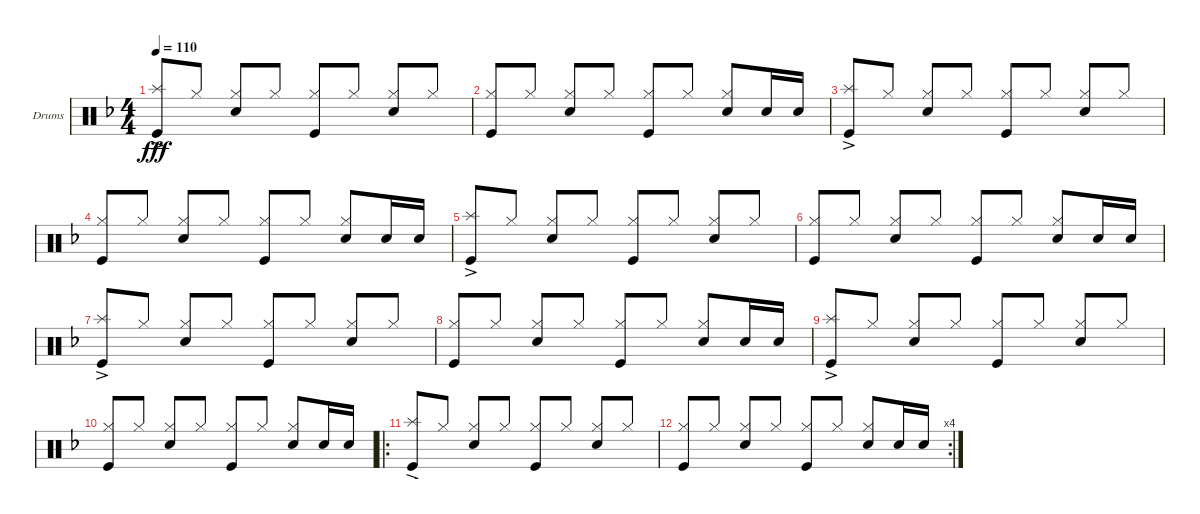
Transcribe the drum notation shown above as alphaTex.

\defaultSystemsLayout 4
\bracketExtendMode groupsimilarinstruments
\firstSystemTrackNameOrientation horizontal
\otherSystemsTrackNameOrientation horizontal
\track ("Drumkit" "Drums") {instrument percussion}
\staff {score}
\articulation defaults
\ts (4 4)
\tempo 110
\clef neutral
\ks f
("Kick (hit)" "Splash (hit)"{ac}).8{dy fff} "Hi-Hat (closed)".8 ("Hi-Hat (closed)" "Snare (hit) 2").8{beam invert} "Hi-Hat (closed)".8 ("Hi-Hat (closed)" "Kick (hit)").8{beam invert} "Hi-Hat (closed)".8 ("Hi-Hat (closed)" "Snare (hit) 2").8{beam invert} "Hi-Hat (closed)".8 |
("Hi-Hat (closed)" "Kick (hit)").8{beam invert} "Hi-Hat (closed)".8 ("Hi-Hat (closed)" "Snare (hit) 2").8{beam invert} "Hi-Hat (closed)".8 ("Hi-Hat (closed)" "Kick (hit)").8{beam invert} "Hi-Hat (closed)".8 ("Hi-Hat (closed)" "Snare (hit) 2").8{beam invert} "Snare (hit) 2".16 "Snare (hit) 2".16 |
("Kick (hit)" "Splash (hit)"{ac}).8 "Hi-Hat (closed)".8 ("Hi-Hat (closed)" "Snare (hit) 2").8{beam invert} "Hi-Hat (closed)".8 ("Hi-Hat (closed)" "Kick (hit)").8{beam invert} "Hi-Hat (closed)".8 ("Hi-Hat (closed)" "Snare (hit) 2").8{beam invert} "Hi-Hat (closed)".8 |
("Hi-Hat (closed)" "Kick (hit)").8{beam invert} "Hi-Hat (closed)".8 ("Hi-Hat (closed)" "Snare (hit) 2").8{beam invert} "Hi-Hat (closed)".8 ("Hi-Hat (closed)" "Kick (hit)").8{beam invert} "Hi-Hat (closed)".8 ("Hi-Hat (closed)" "Snare (hit) 2").8{beam invert} "Snare (hit) 2".16 "Snare (hit) 2".16 |
("Kick (hit)" "Splash (hit)"{ac}).8 "Hi-Hat (closed)".8 ("Hi-Hat (closed)" "Snare (hit) 2").8{beam invert} "Hi-Hat (closed)".8 ("Hi-Hat (closed)" "Kick (hit)").8{beam invert} "Hi-Hat (closed)".8 ("Hi-Hat (closed)" "Snare (hit) 2").8{beam invert} "Hi-Hat (closed)".8 |
("Hi-Hat (closed)" "Kick (hit)").8{beam invert} "Hi-Hat (closed)".8 ("Hi-Hat (closed)" "Snare (hit) 2").8{beam invert} "Hi-Hat (closed)".8 ("Hi-Hat (closed)" "Kick (hit)").8{beam invert} "Hi-Hat (closed)".8 ("Hi-Hat (closed)" "Snare (hit) 2").8{beam invert} "Snare (hit) 2".16 "Snare (hit) 2".16 |
("Kick (hit)" "Splash (hit)"{ac}).8 "Hi-Hat (closed)".8 ("Hi-Hat (closed)" "Snare (hit) 2").8{beam invert} "Hi-Hat (closed)".8 ("Hi-Hat (closed)" "Kick (hit)").8{beam invert} "Hi-Hat (closed)".8 ("Hi-Hat (closed)" "Snare (hit) 2").8{beam invert} "Hi-Hat (closed)".8 |
("Hi-Hat (closed)" "Kick (hit)").8{beam invert} "Hi-Hat (closed)".8 ("Hi-Hat (closed)" "Snare (hit) 2").8{beam invert} "Hi-Hat (closed)".8 ("Hi-Hat (closed)" "Kick (hit)").8{beam invert} "Hi-Hat (closed)".8 ("Hi-Hat (closed)" "Snare (hit) 2").8{beam invert} "Snare (hit) 2".16 "Snare (hit) 2".16 |
("Kick (hit)" "Splash (hit)"{ac}).8 "Hi-Hat (closed)".8 ("Hi-Hat (closed)" "Snare (hit) 2").8{beam invert} "Hi-Hat (closed)".8 ("Hi-Hat (closed)" "Kick (hit)").8{beam invert} "Hi-Hat (closed)".8 ("Hi-Hat (closed)" "Snare (hit) 2").8{beam invert} "Hi-Hat (closed)".8 |
("Hi-Hat (closed)" "Kick (hit)").8{beam invert} "Hi-Hat (closed)".8 ("Hi-Hat (closed)" "Snare (hit) 2").8{beam invert} "Hi-Hat (closed)".8 ("Hi-Hat (closed)" "Kick (hit)").8{beam invert} "Hi-Hat (closed)".8 ("Hi-Hat (closed)" "Snare (hit) 2").8{beam invert} "Snare (hit) 2".16 "Snare (hit) 2".16 |
\ro
("Kick (hit)" "Splash (hit)"{ac}).8 "Hi-Hat (closed)".8 ("Hi-Hat (closed)" "Snare (hit) 2").8{beam invert} "Hi-Hat (closed)".8 ("Hi-Hat (closed)" "Kick (hit)").8{beam invert} "Hi-Hat (closed)".8 ("Hi-Hat (closed)" "Snare (hit) 2").8{beam invert} "Hi-Hat (closed)".8 |
\rc 4
("Hi-Hat (closed)" "Kick (hit)").8{beam invert} "Hi-Hat (closed)".8 ("Hi-Hat (closed)" "Snare (hit) 2").8{beam invert} "Hi-Hat (closed)".8 ("Hi-Hat (closed)" "Kick (hit)").8{beam invert} "Hi-Hat (closed)".8 ("Hi-Hat (closed)" "Snare (hit) 2").8{beam invert} "Snare (hit) 2".16 "Snare (hit) 2".16
